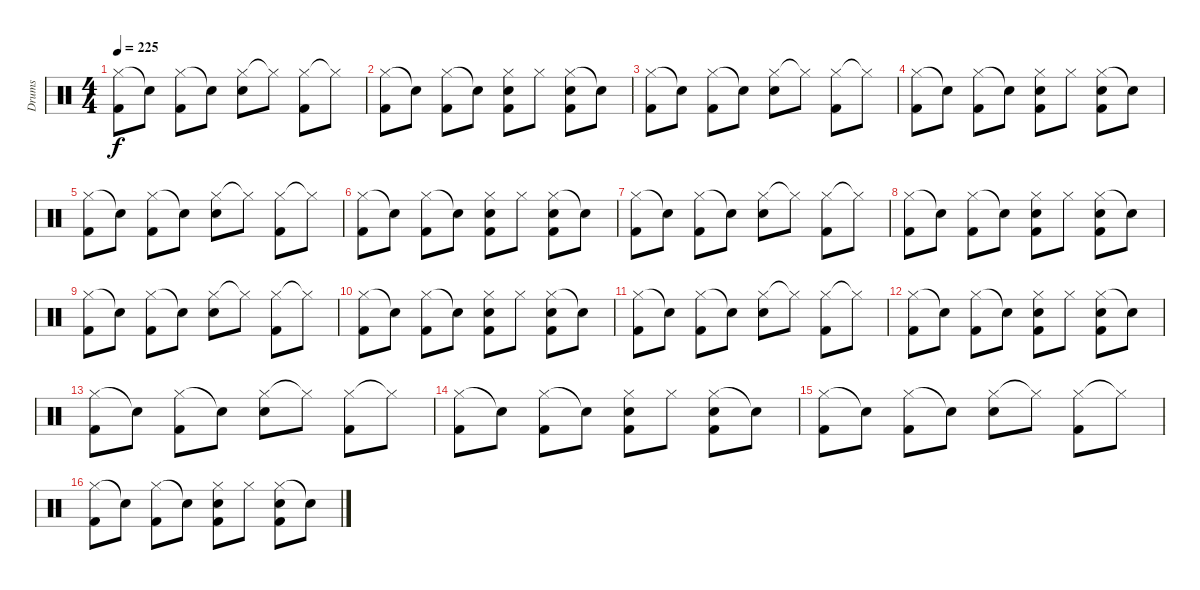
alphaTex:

\track ("Drums" "Drums") {instrument percussion}
\staff {score}
\articulation defaults
\ts (4 4)
\tempo 225
\clef neutral
\ks c
("Hi-Hat (closed)" "Kick (hit) 2").8{dy f} "Snare (hit)"{t}.8 ("Hi-Hat (closed)" "Kick (hit) 2").8 "Snare (hit)"{t}.8 ("Hi-Hat (closed)" "Snare (hit) 2").8 "Hi-Hat (closed)"{t}.8 ("Hi-Hat (closed)" "Kick (hit) 2").8 "Hi-Hat (closed)"{t}.8 |
("Hi-Hat (closed)" "Kick (hit) 2").8 "Snare (hit)"{t}.8 ("Hi-Hat (closed)" "Kick (hit) 2").8 "Snare (hit)"{t}.8 ("Hi-Hat (closed)" "Snare (hit) 2" "Kick (hit) 2").8 "Hi-Hat (closed)".8 ("Hi-Hat (closed)" "Snare (hit) 2" "Kick (hit) 2").8 "Snare (hit)"{t}.8 |
("Hi-Hat (closed)" "Kick (hit) 2").8 "Snare (hit)"{t}.8 ("Hi-Hat (closed)" "Kick (hit) 2").8 "Snare (hit)"{t}.8 ("Hi-Hat (closed)" "Snare (hit) 2").8 "Hi-Hat (closed)"{t}.8 ("Hi-Hat (closed)" "Kick (hit) 2").8 "Hi-Hat (closed)"{t}.8 |
("Hi-Hat (closed)" "Kick (hit) 2").8 "Snare (hit)"{t}.8 ("Hi-Hat (closed)" "Kick (hit) 2").8 "Snare (hit)"{t}.8 ("Hi-Hat (closed)" "Snare (hit) 2" "Kick (hit) 2").8 "Hi-Hat (closed)".8 ("Hi-Hat (closed)" "Snare (hit) 2" "Kick (hit) 2").8 "Snare (hit)"{t}.8 |
("Hi-Hat (closed)" "Kick (hit) 2").8 "Snare (hit)"{t}.8 ("Hi-Hat (closed)" "Kick (hit) 2").8 "Snare (hit)"{t}.8 ("Hi-Hat (closed)" "Snare (hit) 2").8 "Hi-Hat (closed)"{t}.8 ("Hi-Hat (closed)" "Kick (hit) 2").8 "Hi-Hat (closed)"{t}.8 |
("Hi-Hat (closed)" "Kick (hit) 2").8 "Snare (hit)"{t}.8 ("Hi-Hat (closed)" "Kick (hit) 2").8 "Snare (hit)"{t}.8 ("Hi-Hat (closed)" "Snare (hit) 2" "Kick (hit) 2").8 "Hi-Hat (closed)".8 ("Hi-Hat (closed)" "Snare (hit) 2" "Kick (hit) 2").8 "Snare (hit)"{t}.8 |
("Hi-Hat (closed)" "Kick (hit) 2").8 "Snare (hit)"{t}.8 ("Hi-Hat (closed)" "Kick (hit) 2").8 "Snare (hit)"{t}.8 ("Hi-Hat (closed)" "Snare (hit) 2").8 "Hi-Hat (closed)"{t}.8 ("Hi-Hat (closed)" "Kick (hit) 2").8 "Hi-Hat (closed)"{t}.8 |
("Hi-Hat (closed)" "Kick (hit) 2").8 "Snare (hit)"{t}.8 ("Hi-Hat (closed)" "Kick (hit) 2").8 "Snare (hit)"{t}.8 ("Hi-Hat (closed)" "Snare (hit) 2" "Kick (hit) 2").8 "Hi-Hat (closed)".8 ("Hi-Hat (closed)" "Snare (hit) 2" "Kick (hit) 2").8 "Snare (hit)"{t}.8 |
("Hi-Hat (closed)" "Kick (hit) 2").8 "Snare (hit)"{t}.8 ("Hi-Hat (closed)" "Kick (hit) 2").8 "Snare (hit)"{t}.8 ("Hi-Hat (closed)" "Snare (hit) 2").8 "Hi-Hat (closed)"{t}.8 ("Hi-Hat (closed)" "Kick (hit) 2").8 "Hi-Hat (closed)"{t}.8 |
("Hi-Hat (closed)" "Kick (hit) 2").8 "Snare (hit)"{t}.8 ("Hi-Hat (closed)" "Kick (hit) 2").8 "Snare (hit)"{t}.8 ("Hi-Hat (closed)" "Snare (hit) 2" "Kick (hit) 2").8 "Hi-Hat (closed)".8 ("Hi-Hat (closed)" "Snare (hit) 2" "Kick (hit) 2").8 "Snare (hit)"{t}.8 |
("Hi-Hat (closed)" "Kick (hit) 2").8 "Snare (hit)"{t}.8 ("Hi-Hat (closed)" "Kick (hit) 2").8 "Snare (hit)"{t}.8 ("Hi-Hat (closed)" "Snare (hit) 2").8 "Hi-Hat (closed)"{t}.8 ("Hi-Hat (closed)" "Kick (hit) 2").8 "Hi-Hat (closed)"{t}.8 |
("Hi-Hat (closed)" "Kick (hit) 2").8 "Snare (hit)"{t}.8 ("Hi-Hat (closed)" "Kick (hit) 2").8 "Snare (hit)"{t}.8 ("Hi-Hat (closed)" "Snare (hit) 2" "Kick (hit) 2").8 "Hi-Hat (closed)".8 ("Hi-Hat (closed)" "Snare (hit) 2" "Kick (hit) 2").8 "Snare (hit)"{t}.8 |
("Hi-Hat (closed)" "Kick (hit) 2").8 "Snare (hit)"{t}.8 ("Hi-Hat (closed)" "Kick (hit) 2").8 "Snare (hit)"{t}.8 ("Hi-Hat (closed)" "Snare (hit) 2").8 "Hi-Hat (closed)"{t}.8 ("Hi-Hat (closed)" "Kick (hit) 2").8 "Hi-Hat (closed)"{t}.8 |
("Hi-Hat (closed)" "Kick (hit) 2").8 "Snare (hit)"{t}.8 ("Hi-Hat (closed)" "Kick (hit) 2").8 "Snare (hit)"{t}.8 ("Hi-Hat (closed)" "Snare (hit) 2" "Kick (hit) 2").8 "Hi-Hat (closed)".8 ("Hi-Hat (closed)" "Snare (hit) 2" "Kick (hit) 2").8 "Snare (hit)"{t}.8 |
("Hi-Hat (closed)" "Kick (hit) 2").8 "Snare (hit)"{t}.8 ("Hi-Hat (closed)" "Kick (hit) 2").8 "Snare (hit)"{t}.8 ("Hi-Hat (closed)" "Snare (hit) 2").8 "Hi-Hat (closed)"{t}.8 ("Hi-Hat (closed)" "Kick (hit) 2").8 "Hi-Hat (closed)"{t}.8 |
("Hi-Hat (closed)" "Kick (hit) 2").8 "Snare (hit)"{t}.8 ("Hi-Hat (closed)" "Kick (hit) 2").8 "Snare (hit)"{t}.8 ("Hi-Hat (closed)" "Snare (hit) 2" "Kick (hit) 2").8 "Hi-Hat (closed)".8 ("Hi-Hat (closed)" "Snare (hit) 2" "Kick (hit) 2").8 "Snare (hit)"{t}.8
